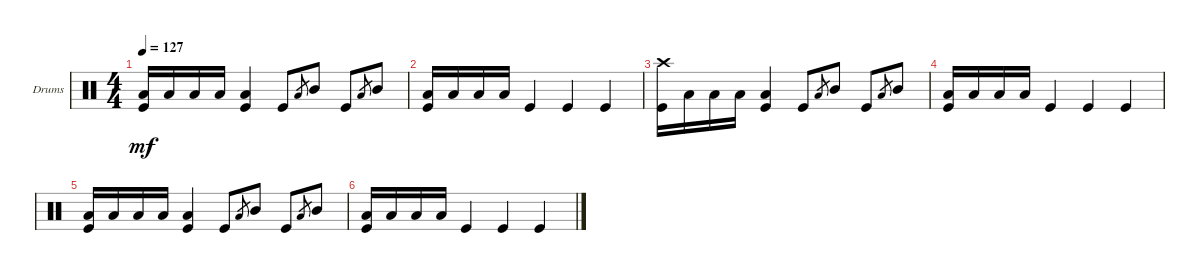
\defaultSystemsLayout 4
\bracketExtendMode groupsimilarinstruments
\firstSystemTrackNameOrientation horizontal
\otherSystemsTrackNameOrientation horizontal
\track ("Drumkit" "Drums") {instrument percussion}
\staff {score}
\articulation defaults
\ts (4 4)
\tempo 127
\clef neutral
\ks c
("Kick (hit)" "Low Tom (hit)").16{dy mf} "Low Tom (hit)".16 "Low Tom (hit)".16 "Low Tom (hit)".16 ("Low Tom (hit)" "Kick (hit)").4 "Kick (hit)".8 "Low Tom (hit)".8{gr} "Mid Tom (hit)".8 "Kick (hit)".8 "Low Tom (hit)".8{gr} "Mid Tom (hit)".8 |
("Kick (hit)" "Low Tom (hit)").16 "Low Tom (hit)".16 "Low Tom (hit)".16 "Low Tom (hit)".16 "Kick (hit)".4 "Kick (hit)".4 "Kick (hit)".4 |
\scale
0.333333 ("Kick (hit)" "Crash high (hit)").16 "Low Tom (hit)".16 "Low Tom (hit)".16 "Low Tom (hit)".16 ("Low Tom (hit)" "Kick (hit)").4 "Kick (hit)".8 "Low Tom (hit)".8{gr} "Mid Tom (hit)".8 "Kick (hit)".8 "Low Tom (hit)".8{gr} "Mid Tom (hit)".8 |
\scale
0.333333 ("Kick (hit)" "Low Tom (hit)").16 "Low Tom (hit)".16 "Low Tom (hit)".16 "Low Tom (hit)".16 "Kick (hit)".4 "Kick (hit)".4 "Kick (hit)".4 |
\scale
0.333333 ("Kick (hit)" "Low Tom (hit)").16 "Low Tom (hit)".16 "Low Tom (hit)".16 "Low Tom (hit)".16 ("Low Tom (hit)" "Kick (hit)").4 "Kick (hit)".8 "Low Tom (hit)".8{gr} "Mid Tom (hit)".8 "Kick (hit)".8 "Low Tom (hit)".8{gr} "Mid Tom (hit)".8 |
\scale
0.333333 ("Kick (hit)" "Low Tom (hit)").16 "Low Tom (hit)".16 "Low Tom (hit)".16 "Low Tom (hit)".16 "Kick (hit)".4 "Kick (hit)".4 "Kick (hit)".4
